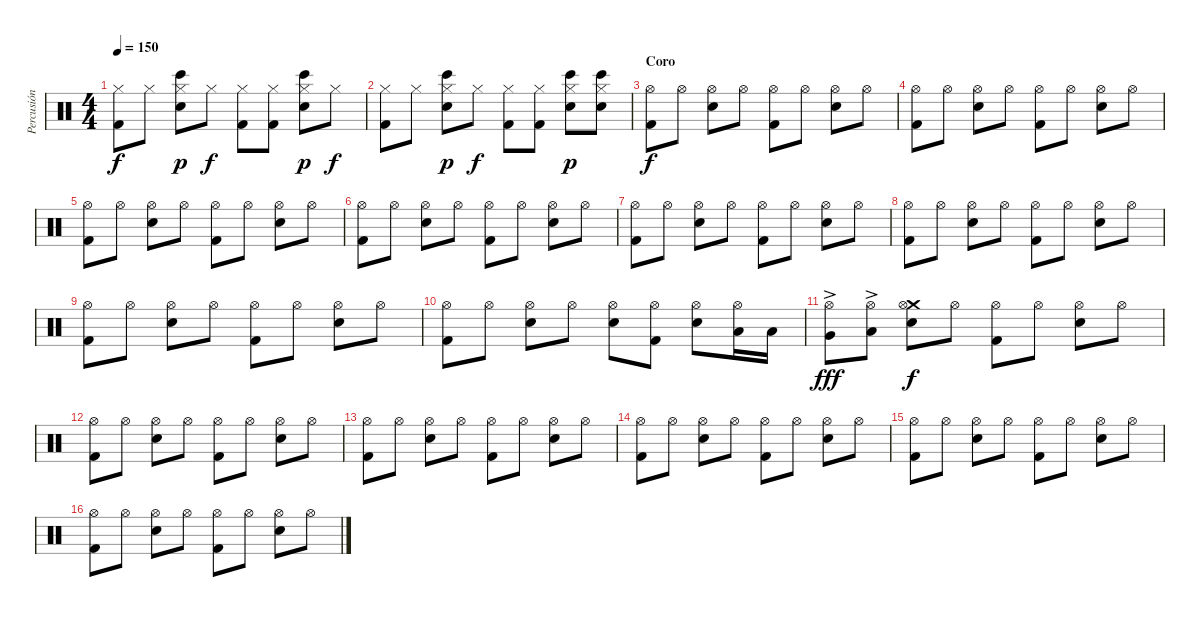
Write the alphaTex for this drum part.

\track ("Percusión" "Percusión") {instrument percussion}
\staff {score}
\articulation defaults
\ts (4 4)
\tempo 150
\clef neutral
\ks c
("Hi-Hat (closed)" "Kick (hit) 2").8{dy f} "Hi-Hat (closed)".8 ("Hi-Hat (closed)" "Bongo High (hit)" "Snare (hit) 2").8{dy p} "Hi-Hat (closed)".8{dy f} ("Hi-Hat (closed)" "Kick (hit) 2").8 ("Hi-Hat (closed)" "Kick (hit) 2").8 ("Hi-Hat (closed)" "Bongo High (hit)" "Snare (hit) 2").8{dy p} "Hi-Hat (closed)".8{dy f} |
("Hi-Hat (closed)" "Kick (hit) 2").8 "Hi-Hat (closed)".8 ("Hi-Hat (closed)" "Bongo High (hit)" "Snare (hit) 2").8{dy p} "Hi-Hat (closed)".8{dy f} ("Hi-Hat (closed)" "Kick (hit) 2").8 ("Hi-Hat (closed)" "Kick (hit) 2").8 ("Hi-Hat (closed)" "Bongo High (hit)" "Snare (hit) 2").8{dy p} ("Hi-Hat (closed)" "Bongo High (hit)" "Snare (hit) 2").8 |
\section ("" "Coro")
("Kick (hit) 2" "Hi-Hat (open)").8{dy f} "Hi-Hat (open)".8 ("Snare (hit) 2" "Hi-Hat (open)").8 "Hi-Hat (open)".8 ("Kick (hit) 2" "Hi-Hat (open)").8 "Hi-Hat (open)".8 ("Snare (hit) 2" "Hi-Hat (open)").8 "Hi-Hat (open)".8 |
("Kick (hit) 2" "Hi-Hat (open)").8 "Hi-Hat (open)".8 ("Snare (hit) 2" "Hi-Hat (open)").8 "Hi-Hat (open)".8 ("Kick (hit) 2" "Hi-Hat (open)").8 "Hi-Hat (open)".8 ("Snare (hit) 2" "Hi-Hat (open)").8 "Hi-Hat (open)".8 |
("Kick (hit) 2" "Hi-Hat (open)").8 "Hi-Hat (open)".8 ("Snare (hit) 2" "Hi-Hat (open)").8 "Hi-Hat (open)".8 ("Kick (hit) 2" "Hi-Hat (open)").8 "Hi-Hat (open)".8 ("Snare (hit) 2" "Hi-Hat (open)").8 "Hi-Hat (open)".8 |
("Kick (hit) 2" "Hi-Hat (open)").8 "Hi-Hat (open)".8 ("Snare (hit) 2" "Hi-Hat (open)").8 "Hi-Hat (open)".8 ("Kick (hit) 2" "Hi-Hat (open)").8 "Hi-Hat (open)".8 ("Snare (hit) 2" "Hi-Hat (open)").8 "Hi-Hat (open)".8 |
("Kick (hit) 2" "Hi-Hat (open)").8 "Hi-Hat (open)".8 ("Snare (hit) 2" "Hi-Hat (open)").8 "Hi-Hat (open)".8 ("Kick (hit) 2" "Hi-Hat (open)").8 "Hi-Hat (open)".8 ("Snare (hit) 2" "Hi-Hat (open)").8 "Hi-Hat (open)".8 |
("Kick (hit) 2" "Hi-Hat (open)").8 "Hi-Hat (open)".8 ("Snare (hit) 2" "Hi-Hat (open)").8 "Hi-Hat (open)".8 ("Kick (hit) 2" "Hi-Hat (open)").8 "Hi-Hat (open)".8 ("Snare (hit) 2" "Hi-Hat (open)").8 "Hi-Hat (open)".8 |
("Kick (hit) 2" "Hi-Hat (open)").8 "Hi-Hat (open)".8 ("Snare (hit) 2" "Hi-Hat (open)").8 "Hi-Hat (open)".8 ("Kick (hit) 2" "Hi-Hat (open)").8 "Hi-Hat (open)".8 ("Snare (hit) 2" "Hi-Hat (open)").8 "Hi-Hat (open)".8 |
("Kick (hit) 2" "Hi-Hat (open)").8 "Hi-Hat (open)".8 ("Snare (hit) 2" "Hi-Hat (open)").8 "Hi-Hat (open)".8 ("Snare (hit) 2" "Hi-Hat (open)").8 ("Kick (hit) 2" "Hi-Hat (open)").8 ("Snare (hit) 2" "Hi-Hat (open)").8 ("Low Tom (hit)" "Hi-Hat (open)").16 "Low Tom (hit)".16 |
("Very Low Tom (hit)"{ac} "Hi-Hat (open)").8{dy fff} ("Low Floor Tom (hit)"{ac} "Hi-Hat (open)").8 ("Crash medium (hit)" "Snare (hit) 2" "Hi-Hat (open)").8{dy f} "Hi-Hat (open)".8 ("Kick (hit) 2" "Hi-Hat (open)").8 "Hi-Hat (open)".8 ("Snare (hit) 2" "Hi-Hat (open)").8 "Hi-Hat (open)".8 |
("Kick (hit) 2" "Hi-Hat (open)").8 "Hi-Hat (open)".8 ("Snare (hit) 2" "Hi-Hat (open)").8 "Hi-Hat (open)".8 ("Kick (hit) 2" "Hi-Hat (open)").8 "Hi-Hat (open)".8 ("Snare (hit) 2" "Hi-Hat (open)").8 "Hi-Hat (open)".8 |
("Kick (hit) 2" "Hi-Hat (open)").8 "Hi-Hat (open)".8 ("Snare (hit) 2" "Hi-Hat (open)").8 "Hi-Hat (open)".8 ("Kick (hit) 2" "Hi-Hat (open)").8 "Hi-Hat (open)".8 ("Snare (hit) 2" "Hi-Hat (open)").8 "Hi-Hat (open)".8 |
("Kick (hit) 2" "Hi-Hat (open)").8 "Hi-Hat (open)".8 ("Snare (hit) 2" "Hi-Hat (open)").8 "Hi-Hat (open)".8 ("Kick (hit) 2" "Hi-Hat (open)").8 "Hi-Hat (open)".8 ("Snare (hit) 2" "Hi-Hat (open)").8 "Hi-Hat (open)".8 |
("Kick (hit) 2" "Hi-Hat (open)").8 "Hi-Hat (open)".8 ("Snare (hit) 2" "Hi-Hat (open)").8 "Hi-Hat (open)".8 ("Kick (hit) 2" "Hi-Hat (open)").8 "Hi-Hat (open)".8 ("Snare (hit) 2" "Hi-Hat (open)").8 "Hi-Hat (open)".8 |
("Kick (hit) 2" "Hi-Hat (open)").8 "Hi-Hat (open)".8 ("Snare (hit) 2" "Hi-Hat (open)").8 "Hi-Hat (open)".8 ("Kick (hit) 2" "Hi-Hat (open)").8 "Hi-Hat (open)".8 ("Snare (hit) 2" "Hi-Hat (open)").8 "Hi-Hat (open)".8
